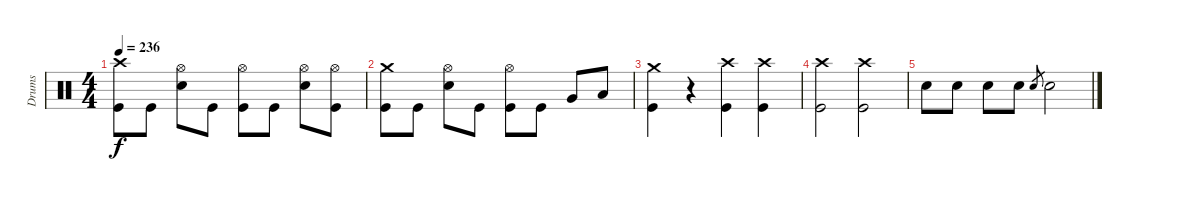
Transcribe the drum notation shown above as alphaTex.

\track ("Drums" "Drums") {instrument percussion}
\staff {score}
\articulation defaults
\ts (4 4)
\tempo 236
\clef neutral
\ks c
("Crash high (hit)" "Kick (hit)").8{dy f} "Kick (hit)".8 ("Hi-Hat (open)" "Snare (hit) 2").8 "Kick (hit)".8 ("Hi-Hat (open)" "Kick (hit)").8 "Kick (hit)".8 ("Hi-Hat (open)" "Snare (hit) 2").8 ("Hi-Hat (open)" "Kick (hit)").8 |
("Crash medium (hit)" "Kick (hit)").8 "Kick (hit)".8 ("Hi-Hat (open)" "Snare (hit) 2").8 "Kick (hit)".8 ("Hi-Hat (open)" "Kick (hit)").8 "Kick (hit)".8 "Very Low Tom (hit)".8 "Low Tom (hit)".8 |
("Crash medium (hit)" "Kick (hit)").4 r.4 ("Crash high (hit)" "Kick (hit)").4 ("Crash high (hit)" "Kick (hit)").4 |
("Crash high (hit)" "Kick (hit)").2 ("Crash high (hit)" "Kick (hit)").2 |
"Snare (hit) 2".8 "Snare (hit) 2".8 "Snare (hit) 2".8 "Snare (hit) 2".8 "Snare (hit) 2".8{gr} "Snare (hit) 2".2
